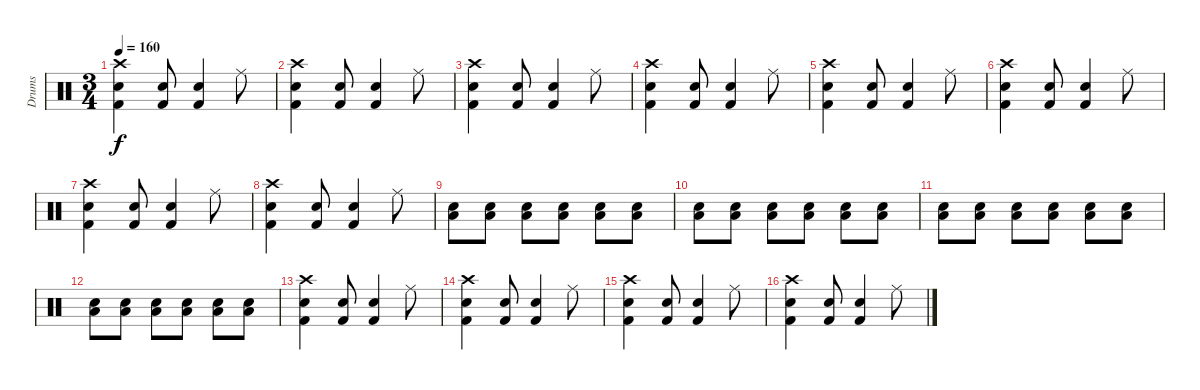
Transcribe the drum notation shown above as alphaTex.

\track ("Drums" "Drums") {instrument percussion}
\staff {score}
\articulation defaults
\ts (3 4)
\tempo 160
\clef neutral
\ks c
("Crash high (hit)" "Kick (hit) 2" "Snare (hit) 2").4{dy f} ("Kick (hit) 2" "Snare (hit) 2").8 ("Kick (hit) 2" "Snare (hit) 2").4 "Ride (middle)".8 |
("Crash high (hit)" "Kick (hit) 2" "Snare (hit) 2").4 ("Kick (hit) 2" "Snare (hit) 2").8 ("Kick (hit) 2" "Snare (hit) 2").4 "Ride (middle)".8 |
("Crash high (hit)" "Kick (hit) 2" "Snare (hit) 2").4 ("Kick (hit) 2" "Snare (hit) 2").8 ("Kick (hit) 2" "Snare (hit) 2").4 "Ride (middle)".8 |
("Crash high (hit)" "Kick (hit) 2" "Snare (hit) 2").4 ("Kick (hit) 2" "Snare (hit) 2").8 ("Kick (hit) 2" "Snare (hit) 2").4 "Ride (middle)".8 |
("Crash high (hit)" "Kick (hit) 2" "Snare (hit) 2").4 ("Kick (hit) 2" "Snare (hit) 2").8 ("Kick (hit) 2" "Snare (hit) 2").4 "Ride (middle)".8 |
("Crash high (hit)" "Kick (hit) 2" "Snare (hit) 2").4 ("Kick (hit) 2" "Snare (hit) 2").8 ("Kick (hit) 2" "Snare (hit) 2").4 "Ride (middle)".8 |
("Crash high (hit)" "Kick (hit) 2" "Snare (hit) 2").4 ("Kick (hit) 2" "Snare (hit) 2").8 ("Kick (hit) 2" "Snare (hit) 2").4 "Ride (middle)".8 |
("Crash high (hit)" "Kick (hit) 2" "Snare (hit) 2").4 ("Kick (hit) 2" "Snare (hit) 2").8 ("Kick (hit) 2" "Snare (hit) 2").4 "Ride (middle)".8 |
("Low Floor Tom (hit)" "Electric Snare (hit)").8 ("Low Floor Tom (hit)" "Electric Snare (hit)").8 ("Low Floor Tom (hit)" "Electric Snare (hit)").8 ("Low Floor Tom (hit)" "Electric Snare (hit)").8 ("Low Floor Tom (hit)" "Electric Snare (hit)").8 ("Low Floor Tom (hit)" "Electric Snare (hit)").8 |
("Low Floor Tom (hit)" "Electric Snare (hit)").8 ("Low Floor Tom (hit)" "Electric Snare (hit)").8 ("Low Floor Tom (hit)" "Electric Snare (hit)").8 ("Low Floor Tom (hit)" "Electric Snare (hit)").8 ("Low Floor Tom (hit)" "Electric Snare (hit)").8 ("Low Floor Tom (hit)" "Electric Snare (hit)").8 |
("Low Floor Tom (hit)" "Electric Snare (hit)").8 ("Low Floor Tom (hit)" "Electric Snare (hit)").8 ("Low Floor Tom (hit)" "Electric Snare (hit)").8 ("Low Floor Tom (hit)" "Electric Snare (hit)").8 ("Low Floor Tom (hit)" "Electric Snare (hit)").8 ("Low Floor Tom (hit)" "Electric Snare (hit)").8 |
("Low Floor Tom (hit)" "Electric Snare (hit)").8 ("Low Floor Tom (hit)" "Electric Snare (hit)").8 ("Low Floor Tom (hit)" "Electric Snare (hit)").8 ("Low Floor Tom (hit)" "Electric Snare (hit)").8 ("Low Floor Tom (hit)" "Electric Snare (hit)").8 ("Low Floor Tom (hit)" "Electric Snare (hit)").8 |
("Crash high (hit)" "Kick (hit) 2" "Snare (hit) 2").4 ("Kick (hit) 2" "Snare (hit) 2").8 ("Kick (hit) 2" "Snare (hit) 2").4 "Ride (middle)".8 |
("Crash high (hit)" "Kick (hit) 2" "Snare (hit) 2").4 ("Kick (hit) 2" "Snare (hit) 2").8 ("Kick (hit) 2" "Snare (hit) 2").4 "Ride (middle)".8 |
("Crash high (hit)" "Kick (hit) 2" "Snare (hit) 2").4 ("Kick (hit) 2" "Snare (hit) 2").8 ("Kick (hit) 2" "Snare (hit) 2").4 "Ride (middle)".8 |
("Crash high (hit)" "Kick (hit) 2" "Snare (hit) 2").4 ("Kick (hit) 2" "Snare (hit) 2").8 ("Kick (hit) 2" "Snare (hit) 2").4 "Ride (middle)".8
